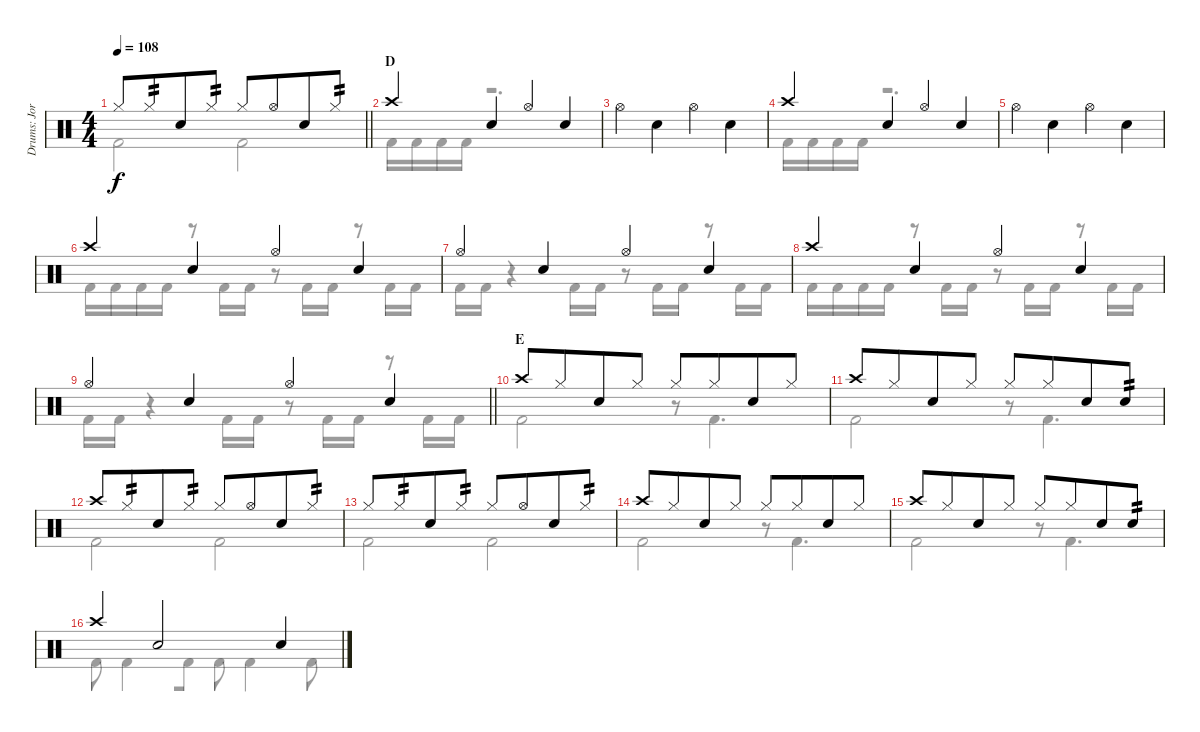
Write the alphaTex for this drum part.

\track ("Drums: Jorg" "Drums: Jor") {instrument percussion}
\staff {score}
\articulation defaults
\voice
\ts (4 4)
\tempo 108
\clef neutral
\barLineRight lightlight
\ks c "Hi-Hat (closed)".8{dy f} "Hi-Hat (closed)".8{tp 2 beam merge} "Snare (hit) 2".8 "Hi-Hat (closed)".8{tp 2} "Hi-Hat (closed)".8 "Hi-Hat (open)".8{beam merge} "Snare (hit) 2".8 "Hi-Hat (closed)".8{tp 2}
|
\section ("" "D")
"Crash high (hit)".4 "Snare (hit) 2".4 "Hi-Hat (open)".4 "Snare (hit) 2".4 |
"Hi-Hat (open)".4 "Snare (hit) 2".4 "Hi-Hat (open)".4 "Snare (hit) 2".4 |
"Crash high (hit)".4 "Snare (hit) 2".4 "Hi-Hat (open)".4 "Snare (hit) 2".4 |
"Hi-Hat (open)".4 "Snare (hit) 2".4 "Hi-Hat (open)".4 "Snare (hit) 2".4 |
"Crash high (hit)".4 "Snare (hit) 2".4 "Hi-Hat (open)".4 "Snare (hit) 2".4 |
"Hi-Hat (open)".4 "Snare (hit) 2".4 "Hi-Hat (open)".4 "Snare (hit) 2".4 |
"Crash high (hit)".4 "Snare (hit) 2".4 "Hi-Hat (open)".4 "Snare (hit) 2".4 |
\barLineRight lightlight "Hi-Hat (open)".4 "Snare (hit) 2".4 "Hi-Hat (open)".4 "Snare (hit) 2".4
|
\section ("" "E")
"Crash high (hit)".8 "Hi-Hat (closed)".8{beam merge} "Snare (hit) 2".8 "Hi-Hat (closed)".8 "Hi-Hat (closed)".8 "Hi-Hat (closed)".8{beam merge} "Snare (hit) 2".8 "Hi-Hat (closed)".8 |
"Crash high (hit)".8 "Hi-Hat (closed)".8{beam merge} "Snare (hit) 2".8 "Hi-Hat (closed)".8 "Hi-Hat (closed)".8 "Hi-Hat (closed)".8{beam merge} "Snare (hit) 2".8 "Electric Snare (hit)".8{tp 2} |
"Crash high (hit)".8 "Hi-Hat (closed)".8{tp 2 beam merge} "Snare (hit) 2".8 "Hi-Hat (closed)".8{tp 2} "Hi-Hat (closed)".8 "Hi-Hat (open)".8{beam merge} "Snare (hit) 2".8 "Hi-Hat (closed)".8{tp 2} |
"Hi-Hat (closed)".8 "Hi-Hat (closed)".8{tp 2 beam merge} "Snare (hit) 2".8 "Hi-Hat (closed)".8{tp 2} "Hi-Hat (closed)".8 "Hi-Hat (open)".8{beam merge} "Snare (hit) 2".8 "Hi-Hat (closed)".8{tp 2} |
"Crash high (hit)".8 "Hi-Hat (closed)".8{beam merge} "Snare (hit) 2".8 "Hi-Hat (closed)".8 "Hi-Hat (closed)".8 "Hi-Hat (closed)".8{beam merge} "Snare (hit) 2".8 "Hi-Hat (closed)".8 |
"Crash high (hit)".8 "Hi-Hat (closed)".8{beam merge} "Snare (hit) 2".8 "Hi-Hat (closed)".8 "Hi-Hat (closed)".8 "Hi-Hat (closed)".8{beam merge} "Snare (hit) 2".8 "Electric Snare (hit)".8{tp 2} |
"Crash high (hit)".4{beam merge} "Snare (hit) 2".2 "Snare (hit) 2".4
\voice
\clef neutral
\ottava regular
\simile none
\barLineRight lightlight
\ks c "Kick (hit) 2".2{dy f} "Kick (hit) 2".2
|
"Kick (hit) 2".16 "Kick (hit) 2".16 "Kick (hit) 2".16 "Kick (hit) 2".16 r.2{d} |
|
"Kick (hit) 2".16 "Kick (hit) 2".16 "Kick (hit) 2".16 "Kick (hit) 2".16 r.2{d} |
|
"Kick (hit) 2".16 "Kick (hit) 2".16 "Kick (hit) 2".16 "Kick (hit) 2".16 r.8 "Kick (hit) 2".16 "Kick (hit) 2".16 r.8 "Kick (hit) 2".16 "Kick (hit) 2".16 r.8 "Kick (hit) 2".16 "Kick (hit) 2".16 |
"Kick (hit) 2".16 "Kick (hit) 2".16 r.4 "Kick (hit) 2".16 "Kick (hit) 2".16 r.8 "Kick (hit) 2".16 "Kick (hit) 2".16 r.8 "Kick (hit) 2".16 "Kick (hit) 2".16 |
"Kick (hit) 2".16 "Kick (hit) 2".16 "Kick (hit) 2".16 "Kick (hit) 2".16 r.8 "Kick (hit) 2".16 "Kick (hit) 2".16 r.8 "Kick (hit) 2".16 "Kick (hit) 2".16 r.8 "Kick (hit) 2".16 "Kick (hit) 2".16 |
\barLineRight lightlight "Kick (hit) 2".16 "Kick (hit) 2".16
r.4 "Kick (hit) 2".16 "Kick (hit) 2".16 r.8 "Kick (hit) 2".16 "Kick (hit) 2".16 r.8 "Kick (hit) 2".16 "Kick (hit) 2".16 |
"Kick (hit) 2".2 r.8 "Kick (hit) 2".4{d} |
"Kick (hit) 2".2 r.8 "Kick (hit) 2".4{d} |
"Kick (hit) 2".2 "Kick (hit) 2".2 |
"Kick (hit) 2".2 "Kick (hit) 2".2 |
"Kick (hit) 2".2 r.8 "Kick (hit) 2".4{d} |
"Kick (hit) 2".2 r.8 "Kick (hit) 2".4{d} |
"Kick (hit) 2".8 "Kick (hit) 2".4{beam merge} "Kick (hit) 2".8 "Kick (hit) 2".8 "Kick (hit) 2".4 "Kick (hit) 2".8
